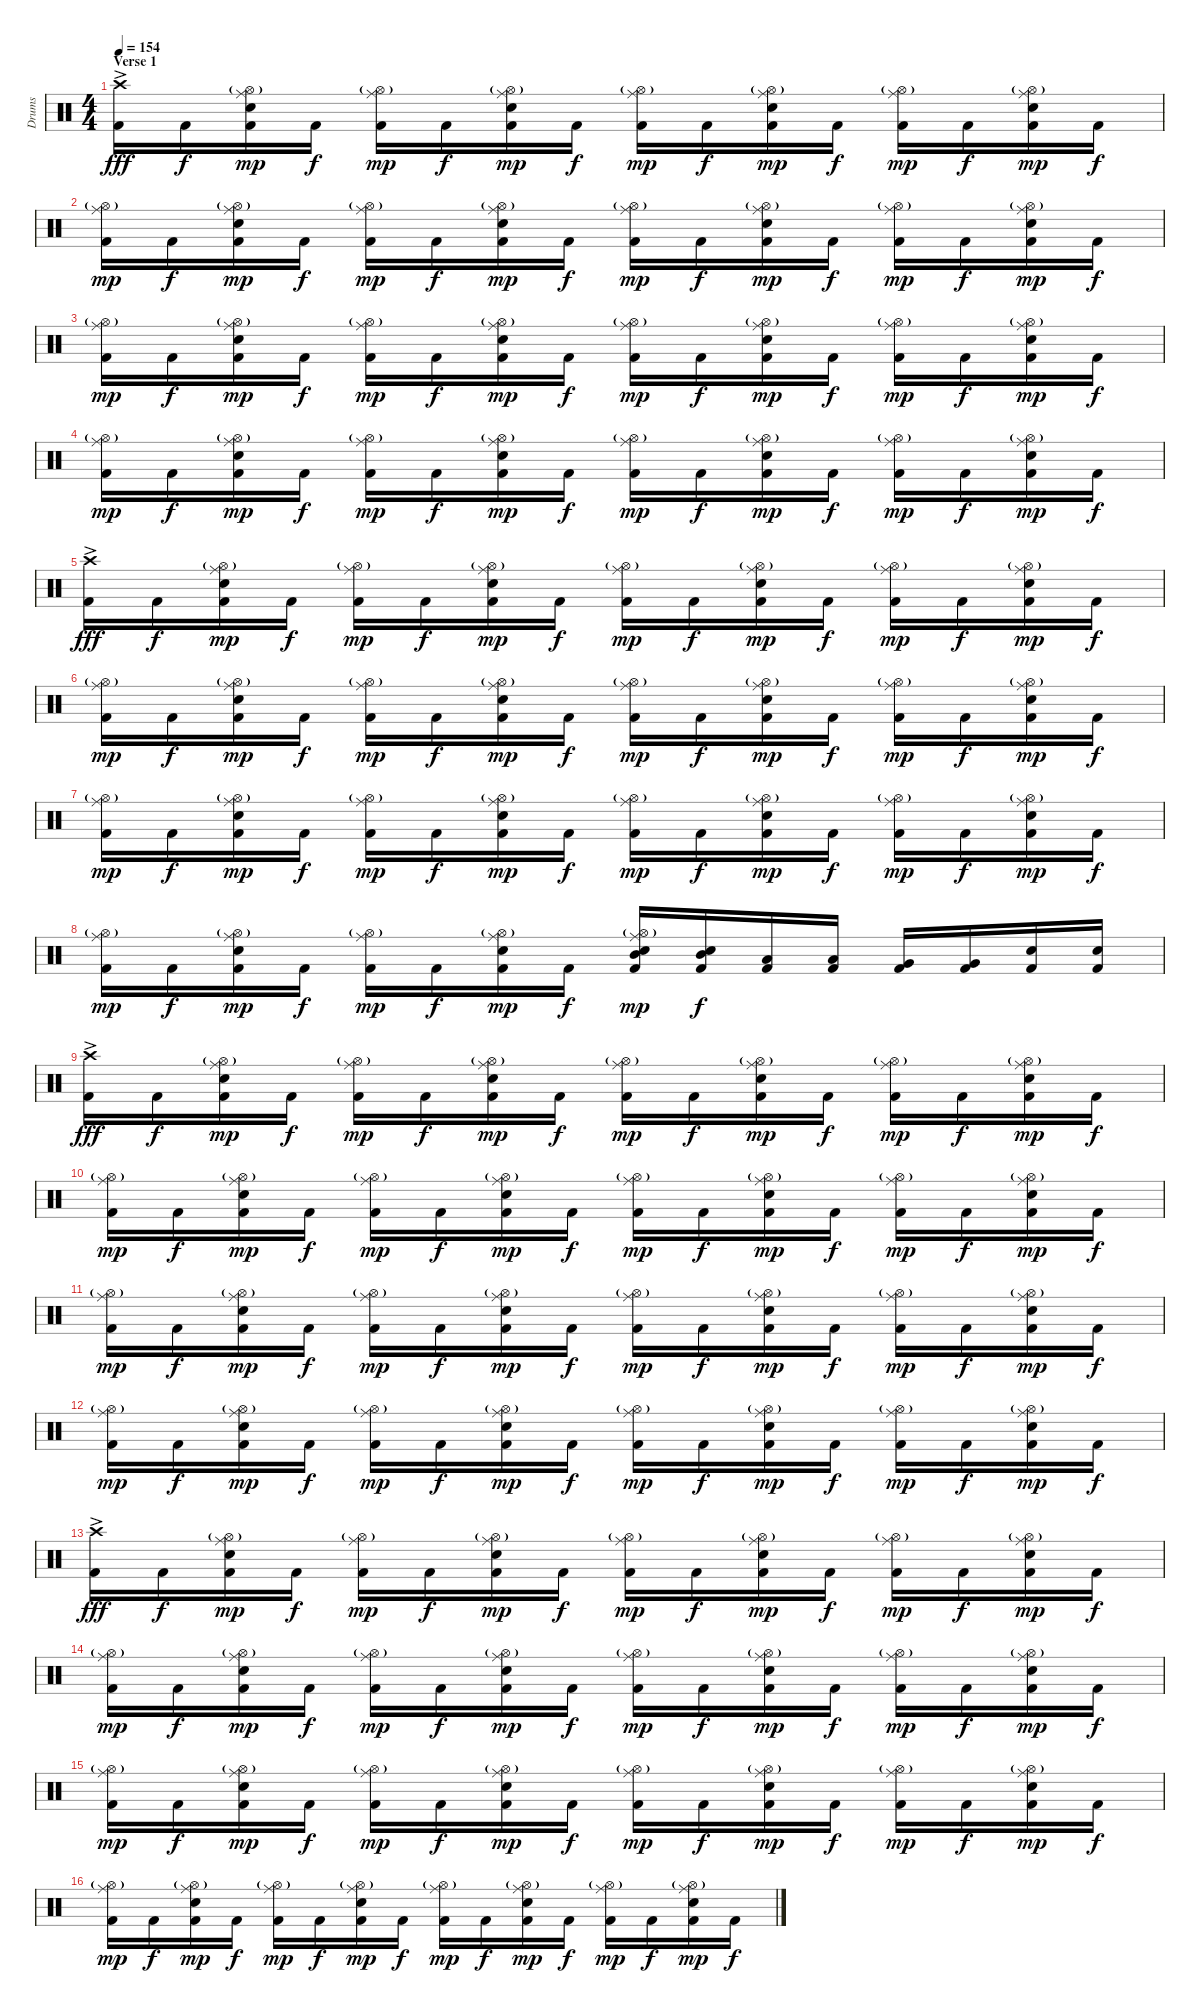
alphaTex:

\track ("Drums" "Drums") {instrument percussion}
\staff {score}
\articulation defaults
\ts (4 4)
\section ("" "Verse 1")
\tempo 154
\clef neutral
\ks c
("Crash high (hit)"{ac} "Kick (hit) 2").16{dy fff} "Kick (hit) 2".16{dy f} ("Hi-Hat (open)"{g} "Ride (middle)" "Electric Snare (hit)" "Kick (hit) 2").16{dy mp} "Kick (hit) 2".16{dy f} ("Hi-Hat (open)"{g} "Ride (middle)" "Kick (hit) 2").16{dy mp} "Kick (hit) 2".16{dy f} ("Hi-Hat (open)"{g} "Ride (middle)" "Electric Snare (hit)" "Kick (hit) 2").16{dy mp} "Kick (hit) 2".16{dy f} ("Hi-Hat (open)"{g} "Ride (middle)" "Kick (hit) 2").16{dy mp} "Kick (hit) 2".16{dy f} ("Hi-Hat (open)"{g} "Ride (middle)" "Electric Snare (hit)" "Kick (hit) 2").16{dy mp} "Kick (hit) 2".16{dy f} ("Hi-Hat (open)"{g} "Ride (middle)" "Kick (hit) 2").16{dy mp} "Kick (hit) 2".16{dy f} ("Hi-Hat (open)"{g} "Ride (middle)" "Electric Snare (hit)" "Kick (hit) 2").16{dy mp} "Kick (hit) 2".16{dy f} |
("Hi-Hat (open)"{g} "Ride (middle)" "Kick (hit) 2").16{dy mp} "Kick (hit) 2".16{dy f} ("Hi-Hat (open)"{g} "Ride (middle)" "Electric Snare (hit)" "Kick (hit) 2").16{dy mp} "Kick (hit) 2".16{dy f} ("Hi-Hat (open)"{g} "Ride (middle)" "Kick (hit) 2").16{dy mp} "Kick (hit) 2".16{dy f} ("Hi-Hat (open)"{g} "Ride (middle)" "Electric Snare (hit)" "Kick (hit) 2").16{dy mp} "Kick (hit) 2".16{dy f} ("Hi-Hat (open)"{g} "Ride (middle)" "Kick (hit) 2").16{dy mp} "Kick (hit) 2".16{dy f} ("Hi-Hat (open)"{g} "Ride (middle)" "Electric Snare (hit)" "Kick (hit) 2").16{dy mp} "Kick (hit) 2".16{dy f} ("Hi-Hat (open)"{g} "Ride (middle)" "Kick (hit) 2").16{dy mp} "Kick (hit) 2".16{dy f} ("Hi-Hat (open)"{g} "Ride (middle)" "Electric Snare (hit)" "Kick (hit) 2").16{dy mp} "Kick (hit) 2".16{dy f} |
("Hi-Hat (open)"{g} "Ride (middle)" "Kick (hit) 2").16{dy mp} "Kick (hit) 2".16{dy f} ("Hi-Hat (open)"{g} "Ride (middle)" "Electric Snare (hit)" "Kick (hit) 2").16{dy mp} "Kick (hit) 2".16{dy f} ("Hi-Hat (open)"{g} "Ride (middle)" "Kick (hit) 2").16{dy mp} "Kick (hit) 2".16{dy f} ("Hi-Hat (open)"{g} "Ride (middle)" "Electric Snare (hit)" "Kick (hit) 2").16{dy mp} "Kick (hit) 2".16{dy f} ("Hi-Hat (open)"{g} "Ride (middle)" "Kick (hit) 2").16{dy mp} "Kick (hit) 2".16{dy f} ("Hi-Hat (open)"{g} "Ride (middle)" "Electric Snare (hit)" "Kick (hit) 2").16{dy mp} "Kick (hit) 2".16{dy f} ("Hi-Hat (open)"{g} "Ride (middle)" "Kick (hit) 2").16{dy mp} "Kick (hit) 2".16{dy f} ("Hi-Hat (open)"{g} "Ride (middle)" "Electric Snare (hit)" "Kick (hit) 2").16{dy mp} "Kick (hit) 2".16{dy f} |
("Hi-Hat (open)"{g} "Ride (middle)" "Kick (hit) 2").16{dy mp} "Kick (hit) 2".16{dy f} ("Hi-Hat (open)"{g} "Ride (middle)" "Electric Snare (hit)" "Kick (hit) 2").16{dy mp} "Kick (hit) 2".16{dy f} ("Hi-Hat (open)"{g} "Ride (middle)" "Kick (hit) 2").16{dy mp} "Kick (hit) 2".16{dy f} ("Hi-Hat (open)"{g} "Ride (middle)" "Electric Snare (hit)" "Kick (hit) 2").16{dy mp} "Kick (hit) 2".16{dy f} ("Hi-Hat (open)"{g} "Ride (middle)" "Kick (hit) 2").16{dy mp} "Kick (hit) 2".16{dy f} ("Hi-Hat (open)"{g} "Ride (middle)" "Electric Snare (hit)" "Kick (hit) 2").16{dy mp} "Kick (hit) 2".16{dy f} ("Hi-Hat (open)"{g} "Ride (middle)" "Kick (hit) 2").16{dy mp} "Kick (hit) 2".16{dy f} ("Hi-Hat (open)"{g} "Ride (middle)" "Electric Snare (hit)" "Kick (hit) 2").16{dy mp} "Kick (hit) 2".16{dy f} |
("Crash high (hit)"{ac} "Kick (hit) 2").16{dy fff} "Kick (hit) 2".16{dy f} ("Hi-Hat (open)"{g} "Ride (middle)" "Electric Snare (hit)" "Kick (hit) 2").16{dy mp} "Kick (hit) 2".16{dy f} ("Hi-Hat (open)"{g} "Ride (middle)" "Kick (hit) 2").16{dy mp} "Kick (hit) 2".16{dy f} ("Hi-Hat (open)"{g} "Ride (middle)" "Electric Snare (hit)" "Kick (hit) 2").16{dy mp} "Kick (hit) 2".16{dy f} ("Hi-Hat (open)"{g} "Ride (middle)" "Kick (hit) 2").16{dy mp} "Kick (hit) 2".16{dy f} ("Hi-Hat (open)"{g} "Ride (middle)" "Electric Snare (hit)" "Kick (hit) 2").16{dy mp} "Kick (hit) 2".16{dy f} ("Hi-Hat (open)"{g} "Ride (middle)" "Kick (hit) 2").16{dy mp} "Kick (hit) 2".16{dy f} ("Hi-Hat (open)"{g} "Ride (middle)" "Electric Snare (hit)" "Kick (hit) 2").16{dy mp} "Kick (hit) 2".16{dy f} |
("Hi-Hat (open)"{g} "Ride (middle)" "Kick (hit) 2").16{dy mp} "Kick (hit) 2".16{dy f} ("Hi-Hat (open)"{g} "Ride (middle)" "Electric Snare (hit)" "Kick (hit) 2").16{dy mp} "Kick (hit) 2".16{dy f} ("Hi-Hat (open)"{g} "Ride (middle)" "Kick (hit) 2").16{dy mp} "Kick (hit) 2".16{dy f} ("Hi-Hat (open)"{g} "Ride (middle)" "Electric Snare (hit)" "Kick (hit) 2").16{dy mp} "Kick (hit) 2".16{dy f} ("Hi-Hat (open)"{g} "Ride (middle)" "Kick (hit) 2").16{dy mp} "Kick (hit) 2".16{dy f} ("Hi-Hat (open)"{g} "Ride (middle)" "Electric Snare (hit)" "Kick (hit) 2").16{dy mp} "Kick (hit) 2".16{dy f} ("Hi-Hat (open)"{g} "Ride (middle)" "Kick (hit) 2").16{dy mp} "Kick (hit) 2".16{dy f} ("Hi-Hat (open)"{g} "Ride (middle)" "Electric Snare (hit)" "Kick (hit) 2").16{dy mp} "Kick (hit) 2".16{dy f} |
("Hi-Hat (open)"{g} "Ride (middle)" "Kick (hit) 2").16{dy mp} "Kick (hit) 2".16{dy f} ("Hi-Hat (open)"{g} "Ride (middle)" "Electric Snare (hit)" "Kick (hit) 2").16{dy mp} "Kick (hit) 2".16{dy f} ("Hi-Hat (open)"{g} "Ride (middle)" "Kick (hit) 2").16{dy mp} "Kick (hit) 2".16{dy f} ("Hi-Hat (open)"{g} "Ride (middle)" "Electric Snare (hit)" "Kick (hit) 2").16{dy mp} "Kick (hit) 2".16{dy f} ("Hi-Hat (open)"{g} "Ride (middle)" "Kick (hit) 2").16{dy mp} "Kick (hit) 2".16{dy f} ("Hi-Hat (open)"{g} "Ride (middle)" "Electric Snare (hit)" "Kick (hit) 2").16{dy mp} "Kick (hit) 2".16{dy f} ("Hi-Hat (open)"{g} "Ride (middle)" "Kick (hit) 2").16{dy mp} "Kick (hit) 2".16{dy f} ("Hi-Hat (open)"{g} "Ride (middle)" "Electric Snare (hit)" "Kick (hit) 2").16{dy mp} "Kick (hit) 2".16{dy f} |
("Hi-Hat (open)"{g} "Ride (middle)" "Kick (hit) 2").16{dy mp} "Kick (hit) 2".16{dy f} ("Hi-Hat (open)"{g} "Ride (middle)" "Electric Snare (hit)" "Kick (hit) 2").16{dy mp} "Kick (hit) 2".16{dy f} ("Hi-Hat (open)"{g} "Ride (middle)" "Kick (hit) 2").16{dy mp} "Kick (hit) 2".16{dy f} ("Hi-Hat (open)"{g} "Ride (middle)" "Electric Snare (hit)" "Kick (hit) 2").16{dy mp} "Kick (hit) 2".16{dy f} ("Hi-Hat (open)"{g} "Ride (middle)" "Electric Snare (hit)" "Mid Tom (hit)" "Kick (hit) 2").16{dy mp} ("Electric Snare (hit)" "Mid Tom (hit)" "Kick (hit) 2").16{dy f} ("Low Tom (hit)" "Kick (hit) 2").16 ("Low Tom (hit)" "Kick (hit) 2").16 ("Very Low Tom (hit)" "Kick (hit) 2").16 ("Very Low Tom (hit)" "Kick (hit) 2").16 ("Electric Snare (hit)" "Kick (hit) 2").16 ("Electric Snare (hit)" "Kick (hit) 2").16 |
("Crash high (hit)"{ac} "Kick (hit) 2").16{dy fff} "Kick (hit) 2".16{dy f} ("Hi-Hat (open)"{g} "Ride (middle)" "Electric Snare (hit)" "Kick (hit) 2").16{dy mp} "Kick (hit) 2".16{dy f} ("Hi-Hat (open)"{g} "Ride (middle)" "Kick (hit) 2").16{dy mp} "Kick (hit) 2".16{dy f} ("Hi-Hat (open)"{g} "Ride (middle)" "Electric Snare (hit)" "Kick (hit) 2").16{dy mp} "Kick (hit) 2".16{dy f} ("Hi-Hat (open)"{g} "Ride (middle)" "Kick (hit) 2").16{dy mp} "Kick (hit) 2".16{dy f} ("Hi-Hat (open)"{g} "Ride (middle)" "Electric Snare (hit)" "Kick (hit) 2").16{dy mp} "Kick (hit) 2".16{dy f} ("Hi-Hat (open)"{g} "Ride (middle)" "Kick (hit) 2").16{dy mp} "Kick (hit) 2".16{dy f} ("Hi-Hat (open)"{g} "Ride (middle)" "Electric Snare (hit)" "Kick (hit) 2").16{dy mp} "Kick (hit) 2".16{dy f} |
("Hi-Hat (open)"{g} "Ride (middle)" "Kick (hit) 2").16{dy mp} "Kick (hit) 2".16{dy f} ("Hi-Hat (open)"{g} "Ride (middle)" "Electric Snare (hit)" "Kick (hit) 2").16{dy mp} "Kick (hit) 2".16{dy f} ("Hi-Hat (open)"{g} "Ride (middle)" "Kick (hit) 2").16{dy mp} "Kick (hit) 2".16{dy f} ("Hi-Hat (open)"{g} "Ride (middle)" "Electric Snare (hit)" "Kick (hit) 2").16{dy mp} "Kick (hit) 2".16{dy f} ("Hi-Hat (open)"{g} "Ride (middle)" "Kick (hit) 2").16{dy mp} "Kick (hit) 2".16{dy f} ("Hi-Hat (open)"{g} "Ride (middle)" "Electric Snare (hit)" "Kick (hit) 2").16{dy mp} "Kick (hit) 2".16{dy f} ("Hi-Hat (open)"{g} "Ride (middle)" "Kick (hit) 2").16{dy mp} "Kick (hit) 2".16{dy f} ("Hi-Hat (open)"{g} "Ride (middle)" "Electric Snare (hit)" "Kick (hit) 2").16{dy mp} "Kick (hit) 2".16{dy f} |
("Hi-Hat (open)"{g} "Ride (middle)" "Kick (hit) 2").16{dy mp} "Kick (hit) 2".16{dy f} ("Hi-Hat (open)"{g} "Ride (middle)" "Electric Snare (hit)" "Kick (hit) 2").16{dy mp} "Kick (hit) 2".16{dy f} ("Hi-Hat (open)"{g} "Ride (middle)" "Kick (hit) 2").16{dy mp} "Kick (hit) 2".16{dy f} ("Hi-Hat (open)"{g} "Ride (middle)" "Electric Snare (hit)" "Kick (hit) 2").16{dy mp} "Kick (hit) 2".16{dy f} ("Hi-Hat (open)"{g} "Ride (middle)" "Kick (hit) 2").16{dy mp} "Kick (hit) 2".16{dy f} ("Hi-Hat (open)"{g} "Ride (middle)" "Electric Snare (hit)" "Kick (hit) 2").16{dy mp} "Kick (hit) 2".16{dy f} ("Hi-Hat (open)"{g} "Ride (middle)" "Kick (hit) 2").16{dy mp} "Kick (hit) 2".16{dy f} ("Hi-Hat (open)"{g} "Ride (middle)" "Electric Snare (hit)" "Kick (hit) 2").16{dy mp} "Kick (hit) 2".16{dy f} |
("Hi-Hat (open)"{g} "Ride (middle)" "Kick (hit) 2").16{dy mp} "Kick (hit) 2".16{dy f} ("Hi-Hat (open)"{g} "Ride (middle)" "Electric Snare (hit)" "Kick (hit) 2").16{dy mp} "Kick (hit) 2".16{dy f} ("Hi-Hat (open)"{g} "Ride (middle)" "Kick (hit) 2").16{dy mp} "Kick (hit) 2".16{dy f} ("Hi-Hat (open)"{g} "Ride (middle)" "Electric Snare (hit)" "Kick (hit) 2").16{dy mp} "Kick (hit) 2".16{dy f} ("Hi-Hat (open)"{g} "Ride (middle)" "Kick (hit) 2").16{dy mp} "Kick (hit) 2".16{dy f} ("Hi-Hat (open)"{g} "Ride (middle)" "Electric Snare (hit)" "Kick (hit) 2").16{dy mp} "Kick (hit) 2".16{dy f} ("Hi-Hat (open)"{g} "Ride (middle)" "Kick (hit) 2").16{dy mp} "Kick (hit) 2".16{dy f} ("Hi-Hat (open)"{g} "Ride (middle)" "Electric Snare (hit)" "Kick (hit) 2").16{dy mp} "Kick (hit) 2".16{dy f} |
("Crash high (hit)"{ac} "Kick (hit) 2").16{dy fff} "Kick (hit) 2".16{dy f} ("Hi-Hat (open)"{g} "Ride (middle)" "Electric Snare (hit)" "Kick (hit) 2").16{dy mp} "Kick (hit) 2".16{dy f} ("Hi-Hat (open)"{g} "Ride (middle)" "Kick (hit) 2").16{dy mp} "Kick (hit) 2".16{dy f} ("Hi-Hat (open)"{g} "Ride (middle)" "Electric Snare (hit)" "Kick (hit) 2").16{dy mp} "Kick (hit) 2".16{dy f} ("Hi-Hat (open)"{g} "Ride (middle)" "Kick (hit) 2").16{dy mp} "Kick (hit) 2".16{dy f} ("Hi-Hat (open)"{g} "Ride (middle)" "Electric Snare (hit)" "Kick (hit) 2").16{dy mp} "Kick (hit) 2".16{dy f} ("Hi-Hat (open)"{g} "Ride (middle)" "Kick (hit) 2").16{dy mp} "Kick (hit) 2".16{dy f} ("Hi-Hat (open)"{g} "Ride (middle)" "Electric Snare (hit)" "Kick (hit) 2").16{dy mp} "Kick (hit) 2".16{dy f} |
("Hi-Hat (open)"{g} "Ride (middle)" "Kick (hit) 2").16{dy mp} "Kick (hit) 2".16{dy f} ("Hi-Hat (open)"{g} "Ride (middle)" "Electric Snare (hit)" "Kick (hit) 2").16{dy mp} "Kick (hit) 2".16{dy f} ("Hi-Hat (open)"{g} "Ride (middle)" "Kick (hit) 2").16{dy mp} "Kick (hit) 2".16{dy f} ("Hi-Hat (open)"{g} "Ride (middle)" "Electric Snare (hit)" "Kick (hit) 2").16{dy mp} "Kick (hit) 2".16{dy f} ("Hi-Hat (open)"{g} "Ride (middle)" "Kick (hit) 2").16{dy mp} "Kick (hit) 2".16{dy f} ("Hi-Hat (open)"{g} "Ride (middle)" "Electric Snare (hit)" "Kick (hit) 2").16{dy mp} "Kick (hit) 2".16{dy f} ("Hi-Hat (open)"{g} "Ride (middle)" "Kick (hit) 2").16{dy mp} "Kick (hit) 2".16{dy f} ("Hi-Hat (open)"{g} "Ride (middle)" "Electric Snare (hit)" "Kick (hit) 2").16{dy mp} "Kick (hit) 2".16{dy f} |
("Hi-Hat (open)"{g} "Ride (middle)" "Kick (hit) 2").16{dy mp} "Kick (hit) 2".16{dy f} ("Hi-Hat (open)"{g} "Ride (middle)" "Electric Snare (hit)" "Kick (hit) 2").16{dy mp} "Kick (hit) 2".16{dy f} ("Hi-Hat (open)"{g} "Ride (middle)" "Kick (hit) 2").16{dy mp} "Kick (hit) 2".16{dy f} ("Hi-Hat (open)"{g} "Ride (middle)" "Electric Snare (hit)" "Kick (hit) 2").16{dy mp} "Kick (hit) 2".16{dy f} ("Hi-Hat (open)"{g} "Ride (middle)" "Kick (hit) 2").16{dy mp} "Kick (hit) 2".16{dy f} ("Hi-Hat (open)"{g} "Ride (middle)" "Electric Snare (hit)" "Kick (hit) 2").16{dy mp} "Kick (hit) 2".16{dy f} ("Hi-Hat (open)"{g} "Ride (middle)" "Kick (hit) 2").16{dy mp} "Kick (hit) 2".16{dy f} ("Hi-Hat (open)"{g} "Ride (middle)" "Electric Snare (hit)" "Kick (hit) 2").16{dy mp} "Kick (hit) 2".16{dy f} |
("Hi-Hat (open)"{g} "Ride (middle)" "Kick (hit) 2").16{dy mp} "Kick (hit) 2".16{dy f} ("Hi-Hat (open)"{g} "Ride (middle)" "Electric Snare (hit)" "Kick (hit) 2").16{dy mp} "Kick (hit) 2".16{dy f} ("Hi-Hat (open)"{g} "Ride (middle)" "Kick (hit) 2").16{dy mp} "Kick (hit) 2".16{dy f} ("Hi-Hat (open)"{g} "Ride (middle)" "Electric Snare (hit)" "Kick (hit) 2").16{dy mp} "Kick (hit) 2".16{dy f} ("Hi-Hat (open)"{g} "Ride (middle)" "Kick (hit) 2").16{dy mp} "Kick (hit) 2".16{dy f} ("Hi-Hat (open)"{g} "Ride (middle)" "Electric Snare (hit)" "Kick (hit) 2").16{dy mp} "Kick (hit) 2".16{dy f} ("Hi-Hat (open)"{g} "Ride (middle)" "Kick (hit) 2").16{dy mp} "Kick (hit) 2".16{dy f} ("Hi-Hat (open)"{g} "Ride (middle)" "Electric Snare (hit)" "Kick (hit) 2").16{dy mp} "Kick (hit) 2".16{dy f}
